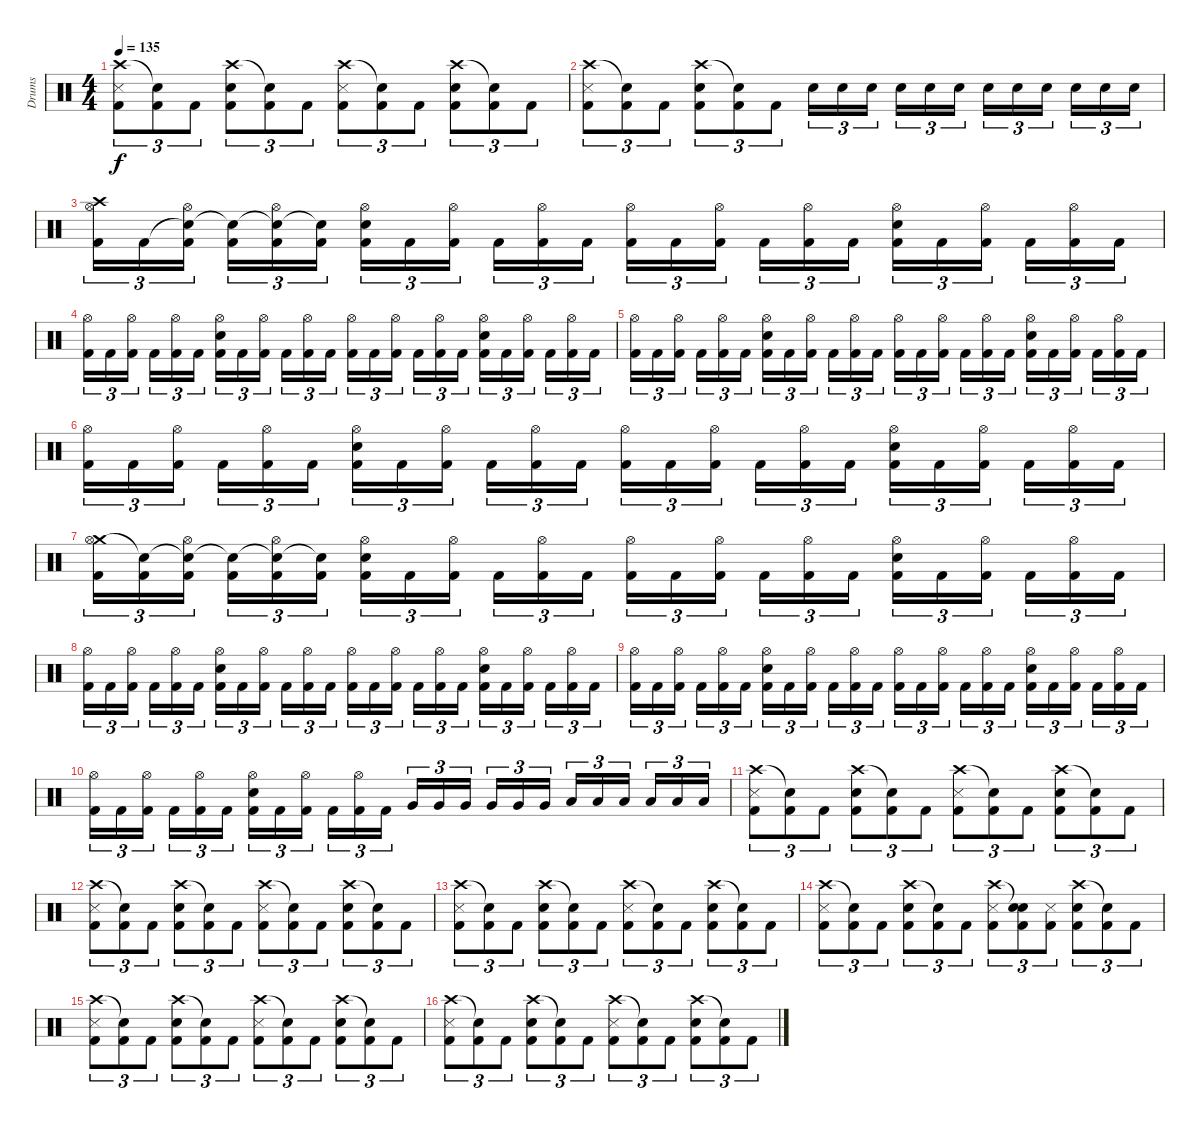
\track ("Drums" "Drums") {instrument percussion}
\staff {score}
\articulation defaults
\ts (4 4)
\tempo 135
\clef neutral
\ks c
("Crash high (hit)" "Snare (side stick) 3" "Kick (hit) 2").8{tu (3 2) dy f} ("Snare (hit)"{t} "Kick (hit) 2").8{tu (3 2)} "Kick (hit) 2".8{tu (3 2)} ("Crash high (hit)" "Electric Snare (hit)" "Kick (hit) 2").8{tu (3 2)} ("Snare (hit)"{t} "Kick (hit) 2").8{tu (3 2)} "Kick (hit) 2".8{tu (3 2)} ("Crash high (hit)" "Snare (side stick) 3" "Kick (hit) 2").8{tu (3 2)} ("Snare (hit)"{t} "Kick (hit) 2").8{tu (3 2)} "Kick (hit) 2".8{tu (3 2)} ("Crash high (hit)" "Electric Snare (hit)" "Kick (hit) 2").8{tu (3 2)} ("Snare (hit)"{t} "Kick (hit) 2").8{tu (3 2)} "Kick (hit) 2".8{tu (3 2)} |
("Crash high (hit)" "Snare (side stick) 3" "Kick (hit) 2").8{tu (3 2)} ("Snare (hit)"{t} "Kick (hit) 2").8{tu (3 2)} "Kick (hit) 2".8{tu (3 2)} ("Crash high (hit)" "Electric Snare (hit)" "Kick (hit) 2").8{tu (3 2)} ("Snare (hit)"{t} "Kick (hit) 2").8{tu (3 2)} "Kick (hit) 2".8{tu (3 2)} "Electric Snare (hit)".16{tu (3 2)} "Electric Snare (hit)".16{tu (3 2)} "Electric Snare (hit)".16{tu (3 2)} "Electric Snare (hit)".16{tu (3 2)} "Electric Snare (hit)".16{tu (3 2)} "Electric Snare (hit)".16{tu (3 2)} "Electric Snare (hit)".16{tu (3 2)} "Electric Snare (hit)".16{tu (3 2)} "Electric Snare (hit)".16{tu (3 2)} "Electric Snare (hit)".16{tu (3 2)} "Electric Snare (hit)".16{tu (3 2)} "Electric Snare (hit)".16{tu (3 2)} |
("Crash high (hit)" "Hi-Hat (open)" "Kick (hit) 2").16{tu (3 2)} "Kick (hit) 2".16{tu (3 2)} ("Snare (hit)"{t} "Hi-Hat (open)" "Kick (hit) 2").16{tu (3 2)} ("Snare (hit)"{t} "Kick (hit) 2").16{tu (3 2)} ("Snare (hit)"{t} "Hi-Hat (open)" "Kick (hit) 2").16{tu (3 2)} ("Snare (hit)"{t} "Kick (hit) 2").16{tu (3 2)} ("Hi-Hat (open)" "Electric Snare (hit)" "Kick (hit) 2").16{tu (3 2)} "Kick (hit) 2".16{tu (3 2)} ("Hi-Hat (open)" "Kick (hit) 2").16{tu (3 2)} "Kick (hit) 2".16{tu (3 2)} ("Hi-Hat (open)" "Kick (hit) 2").16{tu (3 2)} "Kick (hit) 2".16{tu (3 2)} ("Hi-Hat (open)" "Kick (hit) 2").16{tu (3 2)} "Kick (hit) 2".16{tu (3 2)} ("Hi-Hat (open)" "Kick (hit) 2").16{tu (3 2)} "Kick (hit) 2".16{tu (3 2)} ("Hi-Hat (open)" "Kick (hit) 2").16{tu (3 2)} "Kick (hit) 2".16{tu (3 2)} ("Hi-Hat (open)" "Electric Snare (hit)" "Kick (hit) 2").16{tu (3 2)} "Kick (hit) 2".16{tu (3 2)} ("Hi-Hat (open)" "Kick (hit) 2").16{tu (3 2)} "Kick (hit) 2".16{tu (3 2)} ("Hi-Hat (open)" "Kick (hit) 2").16{tu (3 2)} "Kick (hit) 2".16{tu (3 2)} |
("Hi-Hat (open)" "Kick (hit) 2").16{tu (3 2)} "Kick (hit) 2".16{tu (3 2)} ("Hi-Hat (open)" "Kick (hit) 2").16{tu (3 2)} "Kick (hit) 2".16{tu (3 2)} ("Hi-Hat (open)" "Kick (hit) 2").16{tu (3 2)} "Kick (hit) 2".16{tu (3 2)} ("Hi-Hat (open)" "Electric Snare (hit)" "Kick (hit) 2").16{tu (3 2)} "Kick (hit) 2".16{tu (3 2)} ("Hi-Hat (open)" "Kick (hit) 2").16{tu (3 2)} "Kick (hit) 2".16{tu (3 2)} ("Hi-Hat (open)" "Kick (hit) 2").16{tu (3 2)} "Kick (hit) 2".16{tu (3 2)} ("Hi-Hat (open)" "Kick (hit) 2").16{tu (3 2)} "Kick (hit) 2".16{tu (3 2)} ("Hi-Hat (open)" "Kick (hit) 2").16{tu (3 2)} "Kick (hit) 2".16{tu (3 2)} ("Hi-Hat (open)" "Kick (hit) 2").16{tu (3 2)} "Kick (hit) 2".16{tu (3 2)} ("Hi-Hat (open)" "Electric Snare (hit)" "Kick (hit) 2").16{tu (3 2)} "Kick (hit) 2".16{tu (3 2)} ("Hi-Hat (open)" "Kick (hit) 2").16{tu (3 2)} "Kick (hit) 2".16{tu (3 2)} ("Hi-Hat (open)" "Kick (hit) 2").16{tu (3 2)} "Kick (hit) 2".16{tu (3 2)} |
("Hi-Hat (open)" "Kick (hit) 2").16{tu (3 2)} "Kick (hit) 2".16{tu (3 2)} ("Hi-Hat (open)" "Kick (hit) 2").16{tu (3 2)} "Kick (hit) 2".16{tu (3 2)} ("Hi-Hat (open)" "Kick (hit) 2").16{tu (3 2)} "Kick (hit) 2".16{tu (3 2)} ("Hi-Hat (open)" "Electric Snare (hit)" "Kick (hit) 2").16{tu (3 2)} "Kick (hit) 2".16{tu (3 2)} ("Hi-Hat (open)" "Kick (hit) 2").16{tu (3 2)} "Kick (hit) 2".16{tu (3 2)} ("Hi-Hat (open)" "Kick (hit) 2").16{tu (3 2)} "Kick (hit) 2".16{tu (3 2)} ("Hi-Hat (open)" "Kick (hit) 2").16{tu (3 2)} "Kick (hit) 2".16{tu (3 2)} ("Hi-Hat (open)" "Kick (hit) 2").16{tu (3 2)} "Kick (hit) 2".16{tu (3 2)} ("Hi-Hat (open)" "Kick (hit) 2").16{tu (3 2)} "Kick (hit) 2".16{tu (3 2)} ("Hi-Hat (open)" "Electric Snare (hit)" "Kick (hit) 2").16{tu (3 2)} "Kick (hit) 2".16{tu (3 2)} ("Hi-Hat (open)" "Kick (hit) 2").16{tu (3 2)} "Kick (hit) 2".16{tu (3 2)} ("Hi-Hat (open)" "Kick (hit) 2").16{tu (3 2)} "Kick (hit) 2".16{tu (3 2)} |
("Hi-Hat (open)" "Kick (hit) 2").16{tu (3 2)} "Kick (hit) 2".16{tu (3 2)} ("Hi-Hat (open)" "Kick (hit) 2").16{tu (3 2)} "Kick (hit) 2".16{tu (3 2)} ("Hi-Hat (open)" "Kick (hit) 2").16{tu (3 2)} "Kick (hit) 2".16{tu (3 2)} ("Hi-Hat (open)" "Electric Snare (hit)" "Kick (hit) 2").16{tu (3 2)} "Kick (hit) 2".16{tu (3 2)} ("Hi-Hat (open)" "Kick (hit) 2").16{tu (3 2)} "Kick (hit) 2".16{tu (3 2)} ("Hi-Hat (open)" "Kick (hit) 2").16{tu (3 2)} "Kick (hit) 2".16{tu (3 2)} ("Hi-Hat (open)" "Kick (hit) 2").16{tu (3 2)} "Kick (hit) 2".16{tu (3 2)} ("Hi-Hat (open)" "Kick (hit) 2").16{tu (3 2)} "Kick (hit) 2".16{tu (3 2)} ("Hi-Hat (open)" "Kick (hit) 2").16{tu (3 2)} "Kick (hit) 2".16{tu (3 2)} ("Hi-Hat (open)" "Electric Snare (hit)" "Kick (hit) 2").16{tu (3 2)} "Kick (hit) 2".16{tu (3 2)} ("Hi-Hat (open)" "Kick (hit) 2").16{tu (3 2)} "Kick (hit) 2".16{tu (3 2)} ("Hi-Hat (open)" "Kick (hit) 2").16{tu (3 2)} "Kick (hit) 2".16{tu (3 2)} |
("Crash medium (hit)" "Hi-Hat (open)" "Kick (hit) 2").16{tu (3 2)} ("Snare (hit)"{t} "Kick (hit) 2").16{tu (3 2)} ("Snare (hit)"{t} "Hi-Hat (open)" "Kick (hit) 2").16{tu (3 2)} ("Snare (hit)"{t} "Kick (hit) 2").16{tu (3 2)} ("Snare (hit)"{t} "Hi-Hat (open)" "Kick (hit) 2").16{tu (3 2)} ("Snare (hit)"{t} "Kick (hit) 2").16{tu (3 2)} ("Hi-Hat (open)" "Electric Snare (hit)" "Kick (hit) 2").16{tu (3 2)} "Kick (hit) 2".16{tu (3 2)} ("Hi-Hat (open)" "Kick (hit) 2").16{tu (3 2)} "Kick (hit) 2".16{tu (3 2)} ("Hi-Hat (open)" "Kick (hit) 2").16{tu (3 2)} "Kick (hit) 2".16{tu (3 2)} ("Hi-Hat (open)" "Kick (hit) 2").16{tu (3 2)} "Kick (hit) 2".16{tu (3 2)} ("Hi-Hat (open)" "Kick (hit) 2").16{tu (3 2)} "Kick (hit) 2".16{tu (3 2)} ("Hi-Hat (open)" "Kick (hit) 2").16{tu (3 2)} "Kick (hit) 2".16{tu (3 2)} ("Hi-Hat (open)" "Electric Snare (hit)" "Kick (hit) 2").16{tu (3 2)} "Kick (hit) 2".16{tu (3 2)} ("Hi-Hat (open)" "Kick (hit) 2").16{tu (3 2)} "Kick (hit) 2".16{tu (3 2)} ("Hi-Hat (open)" "Kick (hit) 2").16{tu (3 2)} "Kick (hit) 2".16{tu (3 2)} |
("Hi-Hat (open)" "Kick (hit) 2").16{tu (3 2)} "Kick (hit) 2".16{tu (3 2)} ("Hi-Hat (open)" "Kick (hit) 2").16{tu (3 2)} "Kick (hit) 2".16{tu (3 2)} ("Hi-Hat (open)" "Kick (hit) 2").16{tu (3 2)} "Kick (hit) 2".16{tu (3 2)} ("Hi-Hat (open)" "Electric Snare (hit)" "Kick (hit) 2").16{tu (3 2)} "Kick (hit) 2".16{tu (3 2)} ("Hi-Hat (open)" "Kick (hit) 2").16{tu (3 2)} "Kick (hit) 2".16{tu (3 2)} ("Hi-Hat (open)" "Kick (hit) 2").16{tu (3 2)} "Kick (hit) 2".16{tu (3 2)} ("Hi-Hat (open)" "Kick (hit) 2").16{tu (3 2)} "Kick (hit) 2".16{tu (3 2)} ("Hi-Hat (open)" "Kick (hit) 2").16{tu (3 2)} "Kick (hit) 2".16{tu (3 2)} ("Hi-Hat (open)" "Kick (hit) 2").16{tu (3 2)} "Kick (hit) 2".16{tu (3 2)} ("Hi-Hat (open)" "Electric Snare (hit)" "Kick (hit) 2").16{tu (3 2)} "Kick (hit) 2".16{tu (3 2)} ("Hi-Hat (open)" "Kick (hit) 2").16{tu (3 2)} "Kick (hit) 2".16{tu (3 2)} ("Hi-Hat (open)" "Kick (hit) 2").16{tu (3 2)} "Kick (hit) 2".16{tu (3 2)} |
("Hi-Hat (open)" "Kick (hit) 2").16{tu (3 2)} "Kick (hit) 2".16{tu (3 2)} ("Hi-Hat (open)" "Kick (hit) 2").16{tu (3 2)} "Kick (hit) 2".16{tu (3 2)} ("Hi-Hat (open)" "Kick (hit) 2").16{tu (3 2)} "Kick (hit) 2".16{tu (3 2)} ("Hi-Hat (open)" "Electric Snare (hit)" "Kick (hit) 2").16{tu (3 2)} "Kick (hit) 2".16{tu (3 2)} ("Hi-Hat (open)" "Kick (hit) 2").16{tu (3 2)} "Kick (hit) 2".16{tu (3 2)} ("Hi-Hat (open)" "Kick (hit) 2").16{tu (3 2)} "Kick (hit) 2".16{tu (3 2)} ("Hi-Hat (open)" "Kick (hit) 2").16{tu (3 2)} "Kick (hit) 2".16{tu (3 2)} ("Hi-Hat (open)" "Kick (hit) 2").16{tu (3 2)} "Kick (hit) 2".16{tu (3 2)} ("Hi-Hat (open)" "Kick (hit) 2").16{tu (3 2)} "Kick (hit) 2".16{tu (3 2)} ("Hi-Hat (open)" "Electric Snare (hit)" "Kick (hit) 2").16{tu (3 2)} "Kick (hit) 2".16{tu (3 2)} ("Hi-Hat (open)" "Kick (hit) 2").16{tu (3 2)} "Kick (hit) 2".16{tu (3 2)} ("Hi-Hat (open)" "Kick (hit) 2").16{tu (3 2)} "Kick (hit) 2".16{tu (3 2)} |
("Hi-Hat (open)" "Kick (hit) 2").16{tu (3 2)} "Kick (hit) 2".16{tu (3 2)} ("Hi-Hat (open)" "Kick (hit) 2").16{tu (3 2)} "Kick (hit) 2".16{tu (3 2)} ("Hi-Hat (open)" "Kick (hit) 2").16{tu (3 2)} "Kick (hit) 2".16{tu (3 2)} ("Hi-Hat (open)" "Electric Snare (hit)" "Kick (hit) 2").16{tu (3 2)} "Kick (hit) 2".16{tu (3 2)} ("Hi-Hat (open)" "Kick (hit) 2").16{tu (3 2)} "Kick (hit) 2".16{tu (3 2)} ("Hi-Hat (open)" "Kick (hit) 2").16{tu (3 2)} "Kick (hit) 2".16{tu (3 2)} "Very Low Tom (hit)".16{tu (3 2)} "Very Low Tom (hit)".16{tu (3 2)} "Very Low Tom (hit)".16{tu (3 2)} "Very Low Tom (hit)".16{tu (3 2)} "Very Low Tom (hit)".16{tu (3 2)} "Very Low Tom (hit)".16{tu (3 2)} "Low Floor Tom (hit)".16{tu (3 2)} "Low Floor Tom (hit)".16{tu (3 2)} "Low Floor Tom (hit)".16{tu (3 2)} "Low Floor Tom (hit)".16{tu (3 2)} "Low Floor Tom (hit)".16{tu (3 2)} "Low Floor Tom (hit)".16{tu (3 2)} |
("Crash high (hit)" "Snare (side stick) 3" "Kick (hit) 2").8{tu (3 2)} ("Snare (hit)"{t} "Kick (hit) 2").8{tu (3 2)} "Kick (hit) 2".8{tu (3 2)} ("Crash high (hit)" "Electric Snare (hit)" "Kick (hit) 2").8{tu (3 2)} ("Snare (hit)"{t} "Kick (hit) 2").8{tu (3 2)} "Kick (hit) 2".8{tu (3 2)} ("Crash high (hit)" "Snare (side stick) 3" "Kick (hit) 2").8{tu (3 2)} ("Snare (hit)"{t} "Kick (hit) 2").8{tu (3 2)} "Kick (hit) 2".8{tu (3 2)} ("Crash high (hit)" "Electric Snare (hit)" "Kick (hit) 2").8{tu (3 2)} ("Snare (hit)"{t} "Kick (hit) 2").8{tu (3 2)} "Kick (hit) 2".8{tu (3 2)} |
("Crash high (hit)" "Snare (side stick) 3" "Kick (hit) 2").8{tu (3 2)} ("Snare (hit)"{t} "Kick (hit) 2").8{tu (3 2)} "Kick (hit) 2".8{tu (3 2)} ("Crash high (hit)" "Electric Snare (hit)" "Kick (hit) 2").8{tu (3 2)} ("Snare (hit)"{t} "Kick (hit) 2").8{tu (3 2)} "Kick (hit) 2".8{tu (3 2)} ("Crash high (hit)" "Snare (side stick) 3" "Kick (hit) 2").8{tu (3 2)} ("Snare (hit)"{t} "Kick (hit) 2").8{tu (3 2)} "Kick (hit) 2".8{tu (3 2)} ("Crash high (hit)" "Electric Snare (hit)" "Kick (hit) 2").8{tu (3 2)} ("Snare (hit)"{t} "Kick (hit) 2").8{tu (3 2)} "Kick (hit) 2".8{tu (3 2)} |
("Crash high (hit)" "Snare (side stick) 3" "Kick (hit) 2").8{tu (3 2)} ("Snare (hit)"{t} "Kick (hit) 2").8{tu (3 2)} "Kick (hit) 2".8{tu (3 2)} ("Crash high (hit)" "Electric Snare (hit)" "Kick (hit) 2").8{tu (3 2)} ("Snare (hit)"{t} "Kick (hit) 2").8{tu (3 2)} "Kick (hit) 2".8{tu (3 2)} ("Crash high (hit)" "Snare (side stick) 3" "Kick (hit) 2").8{tu (3 2)} ("Snare (hit)"{t} "Kick (hit) 2").8{tu (3 2)} "Kick (hit) 2".8{tu (3 2)} ("Crash high (hit)" "Electric Snare (hit)" "Kick (hit) 2").8{tu (3 2)} ("Snare (hit)"{t} "Kick (hit) 2").8{tu (3 2)} "Kick (hit) 2".8{tu (3 2)} |
("Crash high (hit)" "Snare (side stick) 3" "Kick (hit) 2").8{tu (3 2)} ("Snare (hit)"{t} "Kick (hit) 2").8{tu (3 2)} "Kick (hit) 2".8{tu (3 2)} ("Crash high (hit)" "Electric Snare (hit)" "Kick (hit) 2").8{tu (3 2)} ("Snare (hit)"{t} "Kick (hit) 2").8{tu (3 2)} "Kick (hit) 2".8{tu (3 2)} ("Crash high (hit)" "Snare (side stick) 3" "Kick (hit) 2").8{tu (3 2)} ("Snare (hit)"{t} "Electric Snare (hit)" "Kick (hit) 2").8{tu (3 2)} ("Snare (side stick) 3" "Kick (hit) 2").8{tu (3 2)} ("Crash high (hit)" "Electric Snare (hit)" "Kick (hit) 2").8{tu (3 2)} ("Snare (hit)"{t} "Kick (hit) 2").8{tu (3 2)} "Kick (hit) 2".8{tu (3 2)} |
("Crash high (hit)" "Snare (side stick) 3" "Kick (hit) 2").8{tu (3 2)} ("Snare (hit)"{t} "Kick (hit) 2").8{tu (3 2)} "Kick (hit) 2".8{tu (3 2)} ("Crash high (hit)" "Electric Snare (hit)" "Kick (hit) 2").8{tu (3 2)} ("Snare (hit)"{t} "Kick (hit) 2").8{tu (3 2)} "Kick (hit) 2".8{tu (3 2)} ("Crash high (hit)" "Snare (side stick) 3" "Kick (hit) 2").8{tu (3 2)} ("Snare (hit)"{t} "Kick (hit) 2").8{tu (3 2)} "Kick (hit) 2".8{tu (3 2)} ("Crash high (hit)" "Electric Snare (hit)" "Kick (hit) 2").8{tu (3 2)} ("Snare (hit)"{t} "Kick (hit) 2").8{tu (3 2)} "Kick (hit) 2".8{tu (3 2)} |
("Crash high (hit)" "Snare (side stick) 3" "Kick (hit) 2").8{tu (3 2)} ("Snare (hit)"{t} "Kick (hit) 2").8{tu (3 2)} "Kick (hit) 2".8{tu (3 2)} ("Crash high (hit)" "Electric Snare (hit)" "Kick (hit) 2").8{tu (3 2)} ("Snare (hit)"{t} "Kick (hit) 2").8{tu (3 2)} "Kick (hit) 2".8{tu (3 2)} ("Crash high (hit)" "Snare (side stick) 3" "Kick (hit) 2").8{tu (3 2)} ("Snare (hit)"{t} "Kick (hit) 2").8{tu (3 2)} "Kick (hit) 2".8{tu (3 2)} ("Crash high (hit)" "Electric Snare (hit)" "Kick (hit) 2").8{tu (3 2)} ("Snare (hit)"{t} "Kick (hit) 2").8{tu (3 2)} "Kick (hit) 2".8{tu (3 2)}
